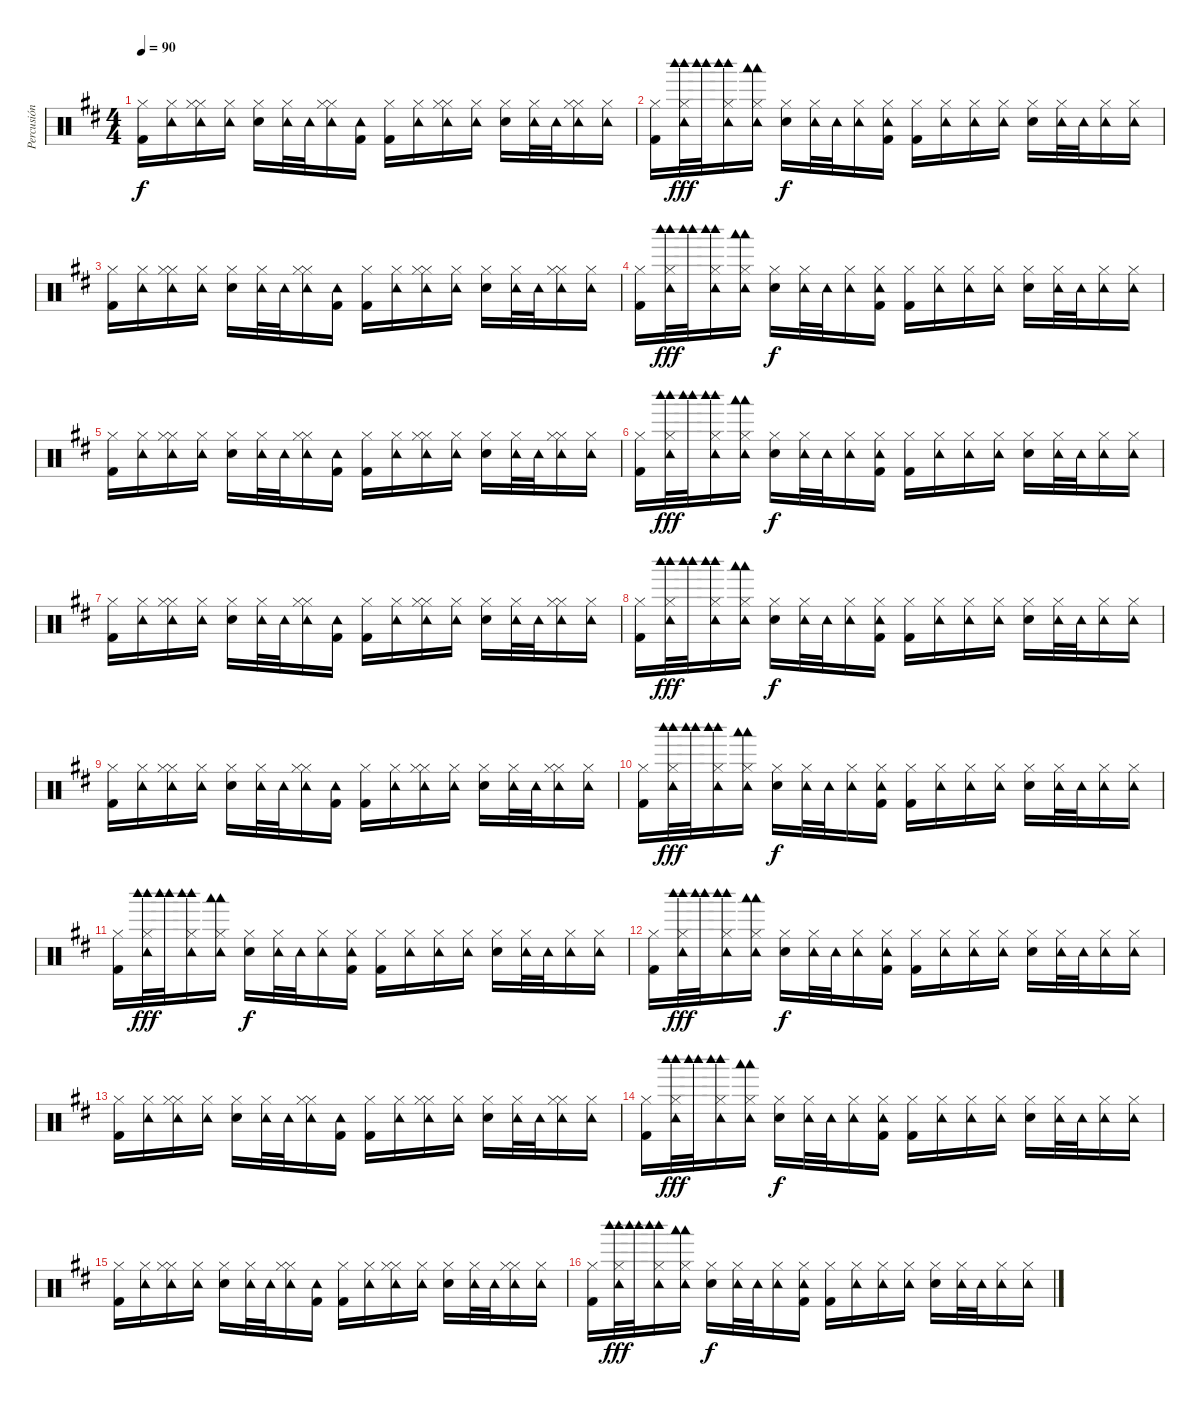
\track ("Percusión" "Percusión") {instrument percussion}
\staff
\articulation defaults
\ts (4 4)
\tempo 90
\clef neutral
\ks bminor
("Kick (hit) 2" "Hi-Hat (closed)").16{dy f} ("Tambourine (hit)" "Hi-Hat (closed)").16 ("Hi-Hat (closed)" "Tambourine (hit)" "Hi-Hat (closed)").16 ("Tambourine (hit)" "Hi-Hat (closed)").16 ("Electric Snare (hit)" "Hi-Hat (closed)").16 ("Tambourine (hit)" "Hi-Hat (closed)").32 "Tambourine (hit)".32 ("Hi-Hat (closed)" "Tambourine (hit)" "Hi-Hat (closed)").16 ("Kick (hit) 2" "Tambourine (hit)").16 ("Kick (hit) 2" "Hi-Hat (closed)").16 ("Tambourine (hit)" "Hi-Hat (closed)").16 ("Hi-Hat (closed)" "Tambourine (hit)" "Hi-Hat (closed)").16 ("Tambourine (hit)" "Hi-Hat (closed)").16 ("Electric Snare (hit)" "Hi-Hat (closed)").16 ("Tambourine (hit)" "Hi-Hat (closed)").32 "Tambourine (hit)".32 ("Hi-Hat (closed)" "Tambourine (hit)" "Hi-Hat (closed)").16 ("Tambourine (hit)" "Hi-Hat (closed)").16 |
("Kick (hit) 2" "Hi-Hat (closed)").16 ("Hi-Hat (closed)" "Tambourine (hit)" "Woodblock high (hit)" "Woodblock high (hit)").32{dy fff} ("Woodblock high (hit)" "Woodblock high (hit)").32 ("Hi-Hat (closed)" "Tambourine (hit)" "Woodblock high (hit)" "Woodblock high (hit)").16 ("Hi-Hat (closed)" "Tambourine (hit)" "Woodblock low (hit)" "Woodblock low (hit)").16 ("Electric Snare (hit)" "Hi-Hat (closed)").16{dy f} ("Hi-Hat (closed)" "Tambourine (hit)").32 "Tambourine (hit)".32 ("Hi-Hat (closed)" "Tambourine (hit)").16 ("Kick (hit) 2" "Hi-Hat (closed)" "Tambourine (hit)").16 ("Kick (hit) 2" "Hi-Hat (closed)").16 ("Hi-Hat (closed)" "Tambourine (hit)").16 ("Hi-Hat (closed)" "Tambourine (hit)").16 ("Hi-Hat (closed)" "Tambourine (hit)").16 ("Electric Snare (hit)" "Hi-Hat (closed)").16 ("Hi-Hat (closed)" "Tambourine (hit)").32 "Tambourine (hit)".32 ("Hi-Hat (closed)" "Tambourine (hit)").16 ("Hi-Hat (closed)" "Tambourine (hit)").16 |
("Kick (hit) 2" "Hi-Hat (closed)").16 ("Tambourine (hit)" "Hi-Hat (closed)").16 ("Hi-Hat (closed)" "Tambourine (hit)" "Hi-Hat (closed)").16 ("Tambourine (hit)" "Hi-Hat (closed)").16 ("Electric Snare (hit)" "Hi-Hat (closed)").16 ("Tambourine (hit)" "Hi-Hat (closed)").32 "Tambourine (hit)".32 ("Hi-Hat (closed)" "Tambourine (hit)" "Hi-Hat (closed)").16 ("Kick (hit) 2" "Tambourine (hit)").16 ("Kick (hit) 2" "Hi-Hat (closed)").16 ("Tambourine (hit)" "Hi-Hat (closed)").16 ("Hi-Hat (closed)" "Tambourine (hit)" "Hi-Hat (closed)").16 ("Tambourine (hit)" "Hi-Hat (closed)").16 ("Electric Snare (hit)" "Hi-Hat (closed)").16 ("Tambourine (hit)" "Hi-Hat (closed)").32 "Tambourine (hit)".32 ("Hi-Hat (closed)" "Tambourine (hit)" "Hi-Hat (closed)").16 ("Tambourine (hit)" "Hi-Hat (closed)").16 |
("Kick (hit) 2" "Hi-Hat (closed)").16 ("Hi-Hat (closed)" "Tambourine (hit)" "Woodblock high (hit)" "Woodblock high (hit)").32{dy fff} ("Woodblock high (hit)" "Woodblock high (hit)").32 ("Hi-Hat (closed)" "Tambourine (hit)" "Woodblock high (hit)" "Woodblock high (hit)").16 ("Hi-Hat (closed)" "Tambourine (hit)" "Woodblock low (hit)" "Woodblock low (hit)").16 ("Electric Snare (hit)" "Hi-Hat (closed)").16{dy f} ("Hi-Hat (closed)" "Tambourine (hit)").32 "Tambourine (hit)".32 ("Hi-Hat (closed)" "Tambourine (hit)").16 ("Kick (hit) 2" "Hi-Hat (closed)" "Tambourine (hit)").16 ("Kick (hit) 2" "Hi-Hat (closed)").16 ("Hi-Hat (closed)" "Tambourine (hit)").16 ("Hi-Hat (closed)" "Tambourine (hit)").16 ("Hi-Hat (closed)" "Tambourine (hit)").16 ("Electric Snare (hit)" "Hi-Hat (closed)").16 ("Hi-Hat (closed)" "Tambourine (hit)").32 "Tambourine (hit)".32 ("Hi-Hat (closed)" "Tambourine (hit)").16 ("Hi-Hat (closed)" "Tambourine (hit)").16 |
("Kick (hit) 2" "Hi-Hat (closed)").16 ("Tambourine (hit)" "Hi-Hat (closed)").16 ("Hi-Hat (closed)" "Tambourine (hit)" "Hi-Hat (closed)").16 ("Tambourine (hit)" "Hi-Hat (closed)").16 ("Electric Snare (hit)" "Hi-Hat (closed)").16 ("Tambourine (hit)" "Hi-Hat (closed)").32 "Tambourine (hit)".32 ("Hi-Hat (closed)" "Tambourine (hit)" "Hi-Hat (closed)").16 ("Kick (hit) 2" "Tambourine (hit)").16 ("Kick (hit) 2" "Hi-Hat (closed)").16 ("Tambourine (hit)" "Hi-Hat (closed)").16 ("Hi-Hat (closed)" "Tambourine (hit)" "Hi-Hat (closed)").16 ("Tambourine (hit)" "Hi-Hat (closed)").16 ("Electric Snare (hit)" "Hi-Hat (closed)").16 ("Tambourine (hit)" "Hi-Hat (closed)").32 "Tambourine (hit)".32 ("Hi-Hat (closed)" "Tambourine (hit)" "Hi-Hat (closed)").16 ("Tambourine (hit)" "Hi-Hat (closed)").16 |
("Kick (hit) 2" "Hi-Hat (closed)").16 ("Hi-Hat (closed)" "Tambourine (hit)" "Woodblock high (hit)" "Woodblock high (hit)").32{dy fff} ("Woodblock high (hit)" "Woodblock high (hit)").32 ("Hi-Hat (closed)" "Tambourine (hit)" "Woodblock high (hit)" "Woodblock high (hit)").16 ("Hi-Hat (closed)" "Tambourine (hit)" "Woodblock low (hit)" "Woodblock low (hit)").16 ("Electric Snare (hit)" "Hi-Hat (closed)").16{dy f} ("Hi-Hat (closed)" "Tambourine (hit)").32 "Tambourine (hit)".32 ("Hi-Hat (closed)" "Tambourine (hit)").16 ("Kick (hit) 2" "Hi-Hat (closed)" "Tambourine (hit)").16 ("Kick (hit) 2" "Hi-Hat (closed)").16 ("Hi-Hat (closed)" "Tambourine (hit)").16 ("Hi-Hat (closed)" "Tambourine (hit)").16 ("Hi-Hat (closed)" "Tambourine (hit)").16 ("Electric Snare (hit)" "Hi-Hat (closed)").16 ("Hi-Hat (closed)" "Tambourine (hit)").32 "Tambourine (hit)".32 ("Hi-Hat (closed)" "Tambourine (hit)").16 ("Hi-Hat (closed)" "Tambourine (hit)").16 |
("Kick (hit) 2" "Hi-Hat (closed)").16 ("Tambourine (hit)" "Hi-Hat (closed)").16 ("Hi-Hat (closed)" "Tambourine (hit)" "Hi-Hat (closed)").16 ("Tambourine (hit)" "Hi-Hat (closed)").16 ("Electric Snare (hit)" "Hi-Hat (closed)").16 ("Tambourine (hit)" "Hi-Hat (closed)").32 "Tambourine (hit)".32 ("Hi-Hat (closed)" "Tambourine (hit)" "Hi-Hat (closed)").16 ("Kick (hit) 2" "Tambourine (hit)").16 ("Kick (hit) 2" "Hi-Hat (closed)").16 ("Tambourine (hit)" "Hi-Hat (closed)").16 ("Hi-Hat (closed)" "Tambourine (hit)" "Hi-Hat (closed)").16 ("Tambourine (hit)" "Hi-Hat (closed)").16 ("Electric Snare (hit)" "Hi-Hat (closed)").16 ("Tambourine (hit)" "Hi-Hat (closed)").32 "Tambourine (hit)".32 ("Hi-Hat (closed)" "Tambourine (hit)" "Hi-Hat (closed)").16 ("Tambourine (hit)" "Hi-Hat (closed)").16 |
("Kick (hit) 2" "Hi-Hat (closed)").16 ("Hi-Hat (closed)" "Tambourine (hit)" "Woodblock high (hit)" "Woodblock high (hit)").32{dy fff} ("Woodblock high (hit)" "Woodblock high (hit)").32 ("Hi-Hat (closed)" "Tambourine (hit)" "Woodblock high (hit)" "Woodblock high (hit)").16 ("Hi-Hat (closed)" "Tambourine (hit)" "Woodblock low (hit)" "Woodblock low (hit)").16 ("Electric Snare (hit)" "Hi-Hat (closed)").16{dy f} ("Hi-Hat (closed)" "Tambourine (hit)").32 "Tambourine (hit)".32 ("Hi-Hat (closed)" "Tambourine (hit)").16 ("Kick (hit) 2" "Hi-Hat (closed)" "Tambourine (hit)").16 ("Kick (hit) 2" "Hi-Hat (closed)").16 ("Hi-Hat (closed)" "Tambourine (hit)").16 ("Hi-Hat (closed)" "Tambourine (hit)").16 ("Hi-Hat (closed)" "Tambourine (hit)").16 ("Electric Snare (hit)" "Hi-Hat (closed)").16 ("Hi-Hat (closed)" "Tambourine (hit)").32 "Tambourine (hit)".32 ("Hi-Hat (closed)" "Tambourine (hit)").16 ("Hi-Hat (closed)" "Tambourine (hit)").16 |
("Kick (hit) 2" "Hi-Hat (closed)").16 ("Tambourine (hit)" "Hi-Hat (closed)").16 ("Hi-Hat (closed)" "Tambourine (hit)" "Hi-Hat (closed)").16 ("Tambourine (hit)" "Hi-Hat (closed)").16 ("Electric Snare (hit)" "Hi-Hat (closed)").16 ("Tambourine (hit)" "Hi-Hat (closed)").32 "Tambourine (hit)".32 ("Hi-Hat (closed)" "Tambourine (hit)" "Hi-Hat (closed)").16 ("Kick (hit) 2" "Tambourine (hit)").16 ("Kick (hit) 2" "Hi-Hat (closed)").16 ("Tambourine (hit)" "Hi-Hat (closed)").16 ("Hi-Hat (closed)" "Tambourine (hit)" "Hi-Hat (closed)").16 ("Tambourine (hit)" "Hi-Hat (closed)").16 ("Electric Snare (hit)" "Hi-Hat (closed)").16 ("Tambourine (hit)" "Hi-Hat (closed)").32 "Tambourine (hit)".32 ("Hi-Hat (closed)" "Tambourine (hit)" "Hi-Hat (closed)").16 ("Tambourine (hit)" "Hi-Hat (closed)").16 |
("Kick (hit) 2" "Hi-Hat (closed)").16 ("Hi-Hat (closed)" "Tambourine (hit)" "Woodblock high (hit)" "Woodblock high (hit)").32{dy fff} ("Woodblock high (hit)" "Woodblock high (hit)").32 ("Hi-Hat (closed)" "Tambourine (hit)" "Woodblock high (hit)" "Woodblock high (hit)").16 ("Hi-Hat (closed)" "Tambourine (hit)" "Woodblock low (hit)" "Woodblock low (hit)").16 ("Electric Snare (hit)" "Hi-Hat (closed)").16{dy f} ("Hi-Hat (closed)" "Tambourine (hit)").32 "Tambourine (hit)".32 ("Hi-Hat (closed)" "Tambourine (hit)").16 ("Kick (hit) 2" "Hi-Hat (closed)" "Tambourine (hit)").16 ("Kick (hit) 2" "Hi-Hat (closed)").16 ("Hi-Hat (closed)" "Tambourine (hit)").16 ("Hi-Hat (closed)" "Tambourine (hit)").16 ("Hi-Hat (closed)" "Tambourine (hit)").16 ("Electric Snare (hit)" "Hi-Hat (closed)").16 ("Hi-Hat (closed)" "Tambourine (hit)").32 "Tambourine (hit)".32 ("Hi-Hat (closed)" "Tambourine (hit)").16 ("Hi-Hat (closed)" "Tambourine (hit)").16 |
("Kick (hit) 2" "Hi-Hat (closed)").16 ("Hi-Hat (closed)" "Tambourine (hit)" "Woodblock high (hit)" "Woodblock high (hit)").32{dy fff} ("Woodblock high (hit)" "Woodblock high (hit)").32 ("Hi-Hat (closed)" "Tambourine (hit)" "Woodblock high (hit)" "Woodblock high (hit)").16 ("Hi-Hat (closed)" "Tambourine (hit)" "Woodblock low (hit)" "Woodblock low (hit)").16 ("Electric Snare (hit)" "Hi-Hat (closed)").16{dy f} ("Hi-Hat (closed)" "Tambourine (hit)").32 "Tambourine (hit)".32 ("Hi-Hat (closed)" "Tambourine (hit)").16 ("Kick (hit) 2" "Hi-Hat (closed)" "Tambourine (hit)").16 ("Kick (hit) 2" "Hi-Hat (closed)").16 ("Hi-Hat (closed)" "Tambourine (hit)").16 ("Hi-Hat (closed)" "Tambourine (hit)").16 ("Hi-Hat (closed)" "Tambourine (hit)").16 ("Electric Snare (hit)" "Hi-Hat (closed)").16 ("Hi-Hat (closed)" "Tambourine (hit)").32 "Tambourine (hit)".32 ("Hi-Hat (closed)" "Tambourine (hit)").16 ("Hi-Hat (closed)" "Tambourine (hit)").16 |
("Kick (hit) 2" "Hi-Hat (closed)").16 ("Hi-Hat (closed)" "Tambourine (hit)" "Woodblock high (hit)" "Woodblock high (hit)").32{dy fff} ("Woodblock high (hit)" "Woodblock high (hit)").32 ("Hi-Hat (closed)" "Tambourine (hit)" "Woodblock high (hit)" "Woodblock high (hit)").16 ("Hi-Hat (closed)" "Tambourine (hit)" "Woodblock low (hit)" "Woodblock low (hit)").16 ("Electric Snare (hit)" "Hi-Hat (closed)").16{dy f} ("Hi-Hat (closed)" "Tambourine (hit)").32 "Tambourine (hit)".32 ("Hi-Hat (closed)" "Tambourine (hit)").16 ("Kick (hit) 2" "Hi-Hat (closed)" "Tambourine (hit)").16 ("Kick (hit) 2" "Hi-Hat (closed)").16 ("Hi-Hat (closed)" "Tambourine (hit)").16 ("Hi-Hat (closed)" "Tambourine (hit)").16 ("Hi-Hat (closed)" "Tambourine (hit)").16 ("Electric Snare (hit)" "Hi-Hat (closed)").16 ("Hi-Hat (closed)" "Tambourine (hit)").32 "Tambourine (hit)".32 ("Hi-Hat (closed)" "Tambourine (hit)").16 ("Hi-Hat (closed)" "Tambourine (hit)").16 |
("Kick (hit) 2" "Hi-Hat (closed)").16 ("Tambourine (hit)" "Hi-Hat (closed)").16 ("Hi-Hat (closed)" "Tambourine (hit)" "Hi-Hat (closed)").16 ("Tambourine (hit)" "Hi-Hat (closed)").16 ("Electric Snare (hit)" "Hi-Hat (closed)").16 ("Tambourine (hit)" "Hi-Hat (closed)").32 "Tambourine (hit)".32 ("Hi-Hat (closed)" "Tambourine (hit)" "Hi-Hat (closed)").16 ("Kick (hit) 2" "Tambourine (hit)").16 ("Kick (hit) 2" "Hi-Hat (closed)").16 ("Tambourine (hit)" "Hi-Hat (closed)").16 ("Hi-Hat (closed)" "Tambourine (hit)" "Hi-Hat (closed)").16 ("Tambourine (hit)" "Hi-Hat (closed)").16 ("Electric Snare (hit)" "Hi-Hat (closed)").16 ("Tambourine (hit)" "Hi-Hat (closed)").32 "Tambourine (hit)".32 ("Hi-Hat (closed)" "Tambourine (hit)" "Hi-Hat (closed)").16 ("Tambourine (hit)" "Hi-Hat (closed)").16 |
("Kick (hit) 2" "Hi-Hat (closed)").16 ("Hi-Hat (closed)" "Tambourine (hit)" "Woodblock high (hit)" "Woodblock high (hit)").32{dy fff} ("Woodblock high (hit)" "Woodblock high (hit)").32 ("Hi-Hat (closed)" "Tambourine (hit)" "Woodblock high (hit)" "Woodblock high (hit)").16 ("Hi-Hat (closed)" "Tambourine (hit)" "Woodblock low (hit)" "Woodblock low (hit)").16 ("Electric Snare (hit)" "Hi-Hat (closed)").16{dy f} ("Hi-Hat (closed)" "Tambourine (hit)").32 "Tambourine (hit)".32 ("Hi-Hat (closed)" "Tambourine (hit)").16 ("Kick (hit) 2" "Hi-Hat (closed)" "Tambourine (hit)").16 ("Kick (hit) 2" "Hi-Hat (closed)").16 ("Hi-Hat (closed)" "Tambourine (hit)").16 ("Hi-Hat (closed)" "Tambourine (hit)").16 ("Hi-Hat (closed)" "Tambourine (hit)").16 ("Electric Snare (hit)" "Hi-Hat (closed)").16 ("Hi-Hat (closed)" "Tambourine (hit)").32 "Tambourine (hit)".32 ("Hi-Hat (closed)" "Tambourine (hit)").16 ("Hi-Hat (closed)" "Tambourine (hit)").16 |
("Kick (hit) 2" "Hi-Hat (closed)").16 ("Tambourine (hit)" "Hi-Hat (closed)").16 ("Hi-Hat (closed)" "Tambourine (hit)" "Hi-Hat (closed)").16 ("Tambourine (hit)" "Hi-Hat (closed)").16 ("Electric Snare (hit)" "Hi-Hat (closed)").16 ("Tambourine (hit)" "Hi-Hat (closed)").32 "Tambourine (hit)".32 ("Hi-Hat (closed)" "Tambourine (hit)" "Hi-Hat (closed)").16 ("Kick (hit) 2" "Tambourine (hit)").16 ("Kick (hit) 2" "Hi-Hat (closed)").16 ("Tambourine (hit)" "Hi-Hat (closed)").16 ("Hi-Hat (closed)" "Tambourine (hit)" "Hi-Hat (closed)").16 ("Tambourine (hit)" "Hi-Hat (closed)").16 ("Electric Snare (hit)" "Hi-Hat (closed)").16 ("Tambourine (hit)" "Hi-Hat (closed)").32 "Tambourine (hit)".32 ("Hi-Hat (closed)" "Tambourine (hit)" "Hi-Hat (closed)").16 ("Tambourine (hit)" "Hi-Hat (closed)").16 |
("Kick (hit) 2" "Hi-Hat (closed)").16 ("Hi-Hat (closed)" "Tambourine (hit)" "Woodblock high (hit)" "Woodblock high (hit)").32{dy fff} ("Woodblock high (hit)" "Woodblock high (hit)").32 ("Hi-Hat (closed)" "Tambourine (hit)" "Woodblock high (hit)" "Woodblock high (hit)").16 ("Hi-Hat (closed)" "Tambourine (hit)" "Woodblock low (hit)" "Woodblock low (hit)").16 ("Electric Snare (hit)" "Hi-Hat (closed)").16{dy f} ("Hi-Hat (closed)" "Tambourine (hit)").32 "Tambourine (hit)".32 ("Hi-Hat (closed)" "Tambourine (hit)").16 ("Kick (hit) 2" "Hi-Hat (closed)" "Tambourine (hit)").16 ("Kick (hit) 2" "Hi-Hat (closed)").16 ("Hi-Hat (closed)" "Tambourine (hit)").16 ("Hi-Hat (closed)" "Tambourine (hit)").16 ("Hi-Hat (closed)" "Tambourine (hit)").16 ("Electric Snare (hit)" "Hi-Hat (closed)").16 ("Hi-Hat (closed)" "Tambourine (hit)").32 "Tambourine (hit)".32 ("Hi-Hat (closed)" "Tambourine (hit)").16 ("Hi-Hat (closed)" "Tambourine (hit)").16
